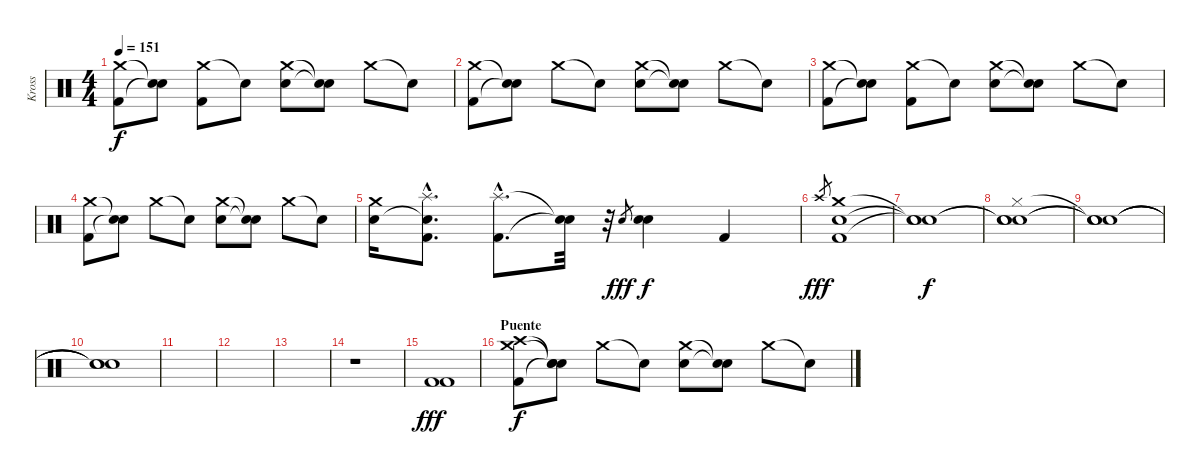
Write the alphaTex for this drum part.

\track ("Kross" "Kross") {instrument percussion}
\staff {score}
\articulation defaults
\ts (4 4)
\tempo 151
\clef neutral
\ks c
("Crash medium (hit)" "Kick (hit) 2").8{dy f} ("Snare (hit)"{t} "Snare (hit)"{t}).8 ("Crash medium (hit)" "Kick (hit) 2").8 "Snare (hit)"{t}.8 ("Crash medium (hit)" "Electric Snare (hit)").8 ("Snare (hit)"{t} "Snare (hit)"{t}).8 "Crash medium (hit)".8 "Snare (hit)"{t}.8 |
("Crash medium (hit)" "Kick (hit) 2").8 ("Snare (hit)"{t} "Snare (hit)"{t}).8 "Crash medium (hit)".8 "Snare (hit)"{t}.8 ("Crash medium (hit)" "Electric Snare (hit)").8 ("Snare (hit)"{t} "Snare (hit)"{t}).8 "Crash medium (hit)".8 "Snare (hit)"{t}.8 |
("Crash medium (hit)" "Kick (hit) 2").8 ("Snare (hit)"{t} "Snare (hit)"{t}).8 ("Crash medium (hit)" "Kick (hit) 2").8 "Snare (hit)"{t}.8 ("Crash medium (hit)" "Electric Snare (hit)").8 ("Snare (hit)"{t} "Snare (hit)"{t}).8 "Crash medium (hit)".8 "Snare (hit)"{t}.8 |
("Crash medium (hit)" "Kick (hit) 2").8 ("Snare (hit)"{t} "Snare (hit)"{t}).8 "Crash medium (hit)".8 "Snare (hit)"{t}.8 ("Crash medium (hit)" "Electric Snare (hit)").8 ("Snare (hit)"{t} "Snare (hit)"{t}).8 "Crash medium (hit)".8 "Snare (hit)"{t}.8 |
("Crash medium (hit)" "Electric Snare (hit)").16 ("Splash (hit)"{hac} "Snare (hit)"{hac t} "Kick (hit) 2"{hac}).8{d} ("Splash (hit)"{hac} "Kick (hit) 2"{hac}).8{d} ("Snare (hit)"{t} "Snare (hit)"{t}).32 r.32 "Electric Snare (hit)".8{gr dy fff} ("Electric Snare (hit)" "Electric Snare (hit)").4{dy f} "Kick (hit) 2".4 |
"Crash high (hit)".8{gr dy fff} ("Crash medium (hit)" "Electric Snare (hit)" "Kick (hit) 2").1 |
("Snare (hit)"{t} "Snare (hit)"{t} "Snare (hit)"{t}).1{dy f} |
("Snare (hit)"{t} "Hi-Hat (closed)" "Snare (hit)"{t} "Snare (hit)").1 |
("Snare (hit)"{t} "Snare (hit)"{t} "Snare (hit)"{t}).1 |
("Snare (hit)"{t} "Snare (hit)"{t} "Snare (hit)"{t}).1 |
|
|
|
r.1 |
("Kick (hit) 2" "Kick (hit) 2").1{dy fff} |
\section ("" "Puente")
("Crash medium (hit)" "Crash high (hit)" "Kick (hit) 2").8{dy f} ("Snare (hit)"{t} "Snare (hit)"{t} "Snare (hit)"{t}).8 "Crash medium (hit)".8 "Snare (hit)"{t}.8 ("Crash medium (hit)" "Electric Snare (hit)").8 ("Snare (hit)"{t} "Snare (hit)"{t}).8 "Crash medium (hit)".8 "Snare (hit)"{t}.8
